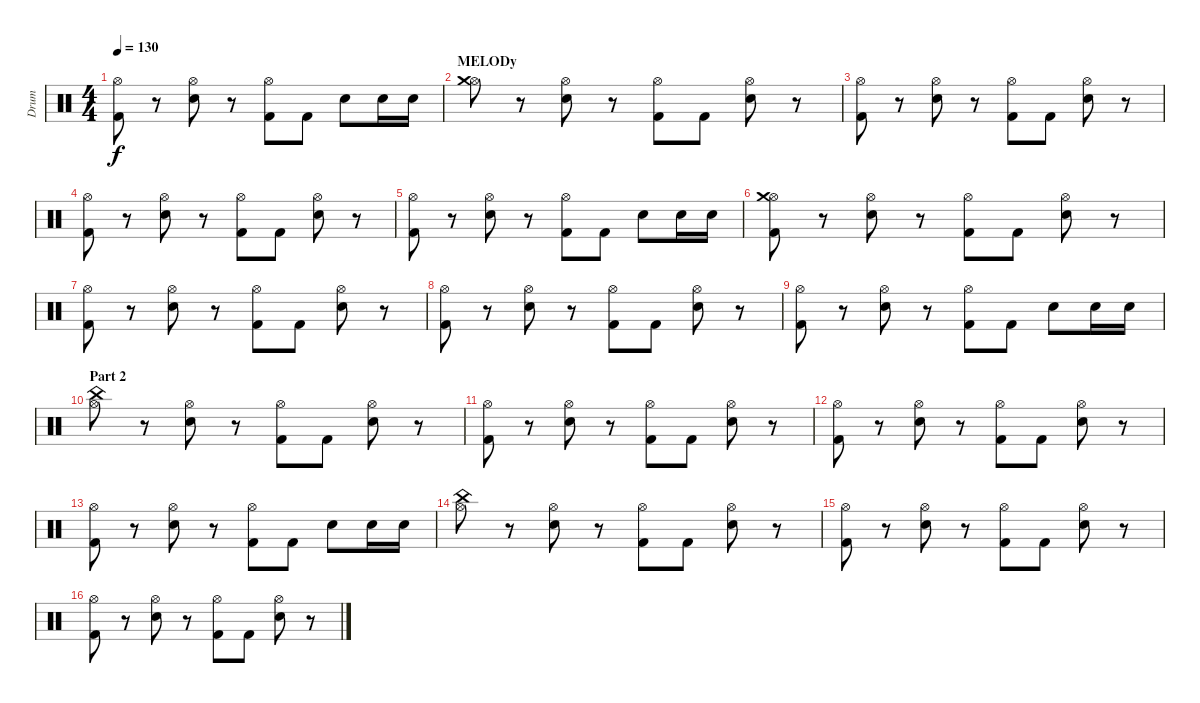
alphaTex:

\track ("Drum" "Drum") {instrument percussion}
\staff {score}
\articulation defaults
\ts (4 4)
\tempo 130
\clef neutral
\ks c
("Hi-Hat (open)" "Kick (hit) 2").8{dy f} r.8 ("Hi-Hat (open)" "Electric Snare (hit)").8 r.8 ("Hi-Hat (open)" "Kick (hit) 2").8 "Kick (hit) 2".8 "Electric Snare (hit)".8 "Electric Snare (hit)".16 "Electric Snare (hit)".16 |
\section ("" "MELODy")
("Hi-Hat (open)" "Crash medium (hit)").8 r.8 ("Hi-Hat (open)" "Electric Snare (hit)").8 r.8 ("Hi-Hat (open)" "Kick (hit) 2").8 "Kick (hit) 2".8 ("Hi-Hat (open)" "Electric Snare (hit)").8 r.8 |
("Hi-Hat (open)" "Kick (hit) 2").8 r.8 ("Hi-Hat (open)" "Electric Snare (hit)").8 r.8 ("Hi-Hat (open)" "Kick (hit) 2").8 "Kick (hit) 2".8 ("Hi-Hat (open)" "Electric Snare (hit)").8 r.8 |
("Hi-Hat (open)" "Kick (hit) 2").8 r.8 ("Hi-Hat (open)" "Electric Snare (hit)").8 r.8 ("Hi-Hat (open)" "Kick (hit) 2").8 "Kick (hit) 2".8 ("Hi-Hat (open)" "Electric Snare (hit)").8 r.8 |
("Hi-Hat (open)" "Kick (hit) 2").8 r.8 ("Hi-Hat (open)" "Electric Snare (hit)").8 r.8 ("Hi-Hat (open)" "Kick (hit) 2").8 "Kick (hit) 2".8 "Electric Snare (hit)".8 "Electric Snare (hit)".16 "Electric Snare (hit)".16 |
("Hi-Hat (open)" "Crash medium (hit)" "Kick (hit) 2").8 r.8 ("Hi-Hat (open)" "Electric Snare (hit)").8 r.8 ("Hi-Hat (open)" "Kick (hit) 2").8 "Kick (hit) 2".8 ("Hi-Hat (open)" "Electric Snare (hit)").8 r.8 |
("Hi-Hat (open)" "Kick (hit) 2").8 r.8 ("Hi-Hat (open)" "Electric Snare (hit)").8 r.8 ("Hi-Hat (open)" "Kick (hit) 2").8 "Kick (hit) 2".8 ("Hi-Hat (open)" "Electric Snare (hit)").8 r.8 |
("Hi-Hat (open)" "Kick (hit) 2").8 r.8 ("Hi-Hat (open)" "Electric Snare (hit)").8 r.8 ("Hi-Hat (open)" "Kick (hit) 2").8 "Kick (hit) 2".8 ("Hi-Hat (open)" "Electric Snare (hit)").8 r.8 |
("Hi-Hat (open)" "Kick (hit) 2").8 r.8 ("Hi-Hat (open)" "Electric Snare (hit)").8 r.8 ("Hi-Hat (open)" "Kick (hit) 2").8 "Kick (hit) 2".8 "Electric Snare (hit)".8 "Electric Snare (hit)".16 "Electric Snare (hit)".16 |
\section ("" "Part 2")
("Hi-Hat (open)" "China (hit)").8 r.8 ("Hi-Hat (open)" "Electric Snare (hit)").8 r.8 ("Hi-Hat (open)" "Kick (hit) 2").8 "Kick (hit) 2".8 ("Hi-Hat (open)" "Electric Snare (hit)").8 r.8 |
("Hi-Hat (open)" "Kick (hit) 2").8 r.8 ("Hi-Hat (open)" "Electric Snare (hit)").8 r.8 ("Hi-Hat (open)" "Kick (hit) 2").8 "Kick (hit) 2".8 ("Hi-Hat (open)" "Electric Snare (hit)").8 r.8 |
("Hi-Hat (open)" "Kick (hit) 2").8 r.8 ("Hi-Hat (open)" "Electric Snare (hit)").8 r.8 ("Hi-Hat (open)" "Kick (hit) 2").8 "Kick (hit) 2".8 ("Hi-Hat (open)" "Electric Snare (hit)").8 r.8 |
("Hi-Hat (open)" "Kick (hit) 2").8 r.8 ("Hi-Hat (open)" "Electric Snare (hit)").8 r.8 ("Hi-Hat (open)" "Kick (hit) 2").8 "Kick (hit) 2".8 "Electric Snare (hit)".8 "Electric Snare (hit)".16 "Electric Snare (hit)".16 |
("Hi-Hat (open)" "China (hit)").8 r.8 ("Hi-Hat (open)" "Electric Snare (hit)").8 r.8 ("Hi-Hat (open)" "Kick (hit) 2").8 "Kick (hit) 2".8 ("Hi-Hat (open)" "Electric Snare (hit)").8 r.8 |
("Hi-Hat (open)" "Kick (hit) 2").8 r.8 ("Hi-Hat (open)" "Electric Snare (hit)").8 r.8 ("Hi-Hat (open)" "Kick (hit) 2").8 "Kick (hit) 2".8 ("Hi-Hat (open)" "Electric Snare (hit)").8 r.8 |
("Hi-Hat (open)" "Kick (hit) 2").8 r.8 ("Hi-Hat (open)" "Electric Snare (hit)").8 r.8 ("Hi-Hat (open)" "Kick (hit) 2").8 "Kick (hit) 2".8 ("Hi-Hat (open)" "Electric Snare (hit)").8 r.8
